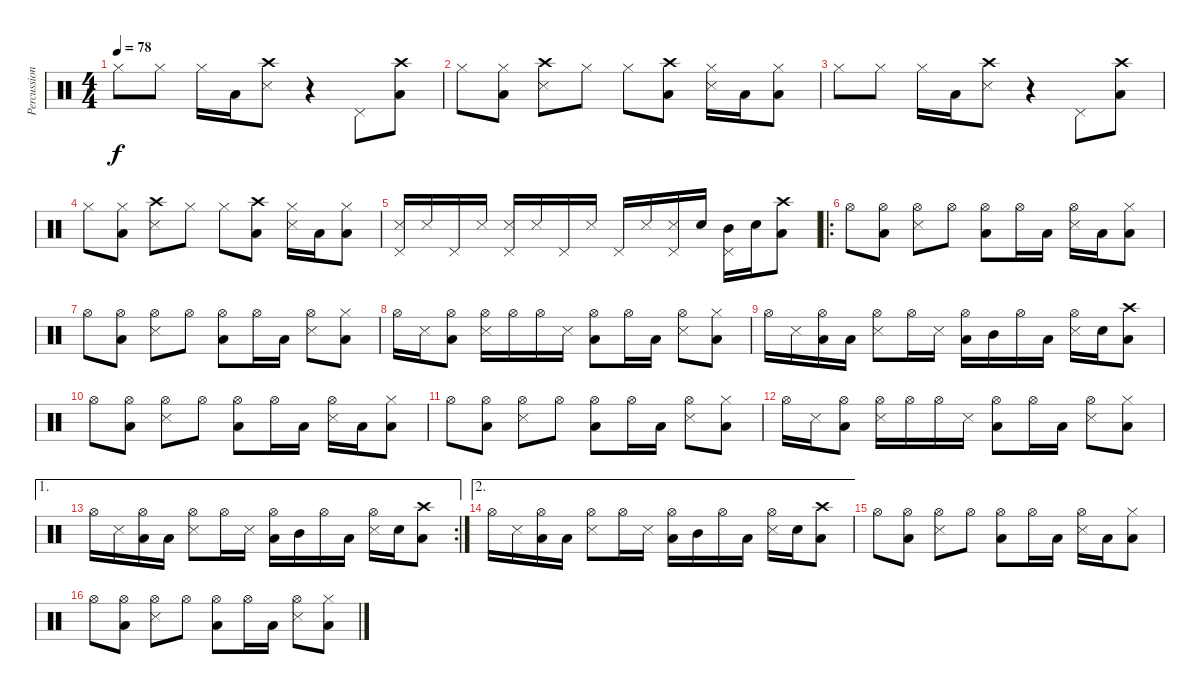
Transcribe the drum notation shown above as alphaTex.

\track ("Percussions" "Percussion") {instrument percussion}
\staff {score}
\articulation defaults
\ts (4 4)
\tempo 78
\clef neutral
\ks c "Hi-Hat (closed)".8{dy f} "Hi-Hat (closed)".8 "Hi-Hat (closed)".16 "Low Floor Tom (hit)".16
("Crash high (hit)" "Snare (side stick) 3").8 r.4 "Pedal Hi-Hat (hit)".8 ("Crash high (hit)" "Low Floor Tom (hit)").8 |
"Hi-Hat (closed)".8 ("Hi-Hat (closed)" "Low Floor Tom (hit)").8 ("Crash high (hit)" "Snare (side stick) 3").8 "Hi-Hat (closed)".8 "Hi-Hat (closed)".8 ("Crash high (hit)" "Low Floor Tom (hit)").8 ("Hi-Hat (closed)" "Snare (side stick) 3").16 "Low Floor Tom (hit)".16 ("Hi-Hat (closed)" "Low Floor Tom (hit)").8 |
"Hi-Hat (closed)".8 "Hi-Hat (closed)".8 "Hi-Hat (closed)".16 "Low Floor Tom (hit)".16 ("Crash high (hit)" "Snare (side stick) 3").8 r.4 "Pedal Hi-Hat (hit)".8 ("Crash high (hit)" "Low Floor Tom (hit)").8 |
"Hi-Hat (closed)".8 ("Hi-Hat (closed)" "Low Floor Tom (hit)").8 ("Crash high (hit)" "Snare (side stick) 3").8 "Hi-Hat (closed)".8 "Hi-Hat (closed)".8 ("Crash high (hit)" "Low Floor Tom (hit)").8 ("Hi-Hat (closed)" "Snare (side stick) 3").16 "Low Floor Tom (hit)".16 ("Hi-Hat (closed)" "Low Floor Tom (hit)").8 |
("Snare (side stick) 3" "Pedal Hi-Hat (hit)").16 "Snare (side stick) 3".16 "Pedal Hi-Hat (hit)".16 "Snare (side stick) 3".16 ("Snare (side stick) 3" "Pedal Hi-Hat (hit)").16 "Snare (side stick) 3".16 "Pedal Hi-Hat (hit)".16 "Snare (side stick) 3".16 "Pedal Hi-Hat (hit)".16 "Snare (side stick) 3".16 ("Snare (side stick) 3" "Pedal Hi-Hat (hit)").16 "Snare (hit) 2".16 ("Mid Tom (hit)" "Pedal Hi-Hat (hit)").16 "Snare (hit) 2".16 ("Crash high (hit)" "Low Floor Tom (hit)").8 |
\ro "Hi-Hat (open)".8
("Hi-Hat (open)" "Low Floor Tom (hit)").8 ("Hi-Hat (open)" "Snare (side stick) 3").8 "Hi-Hat (open)".8 ("Hi-Hat (open)" "Low Floor Tom (hit)").8 "Hi-Hat (open)".16 "Low Floor Tom (hit)".16 ("Hi-Hat (open)" "Snare (side stick) 3").16 "Low Floor Tom (hit)".16 ("Hi-Hat (closed)" "Low Floor Tom (hit)").8 |
"Hi-Hat (open)".8 ("Hi-Hat (open)" "Low Floor Tom (hit)").8 ("Hi-Hat (open)" "Snare (side stick) 3").8 "Hi-Hat (open)".8 ("Hi-Hat (open)" "Low Floor Tom (hit)").8 "Hi-Hat (open)".16 "Low Floor Tom (hit)".16 ("Hi-Hat (open)" "Snare (side stick) 3").8 ("Hi-Hat (closed)" "Low Floor Tom (hit)").8 |
"Hi-Hat (open)".16 "Snare (side stick) 3".16 ("Hi-Hat (open)" "Low Floor Tom (hit)").8 ("Hi-Hat (open)" "Snare (side stick) 3").16 "Hi-Hat (open)".16 "Hi-Hat (open)".16 "Snare (side stick) 3".16 ("Hi-Hat (open)" "Low Floor Tom (hit)").8 "Hi-Hat (open)".16 "Low Floor Tom (hit)".16 ("Hi-Hat (open)" "Snare (side stick) 3").8 ("Hi-Hat (closed)" "Low Floor Tom (hit)").8 |
"Hi-Hat (open)".16 "Snare (side stick) 3".16 ("Hi-Hat (open)" "Low Floor Tom (hit)").16 "Low Floor Tom (hit)".16 ("Hi-Hat (open)" "Snare (side stick) 3").8 "Hi-Hat (open)".16 "Snare (side stick) 3".16 ("Hi-Hat (open)" "Low Floor Tom (hit)").16 "Mid Tom (hit)".16 "Hi-Hat (open)".16 "Low Floor Tom (hit)".16 ("Hi-Hat (open)" "Snare (side stick) 3").16 "Snare (hit) 2".16 ("Crash high (hit)" "Low Floor Tom (hit)").8 |
"Hi-Hat (open)".8 ("Hi-Hat (open)" "Low Floor Tom (hit)").8 ("Hi-Hat (open)" "Snare (side stick) 3").8 "Hi-Hat (open)".8 ("Hi-Hat (open)" "Low Floor Tom (hit)").8 "Hi-Hat (open)".16 "Low Floor Tom (hit)".16 ("Hi-Hat (open)" "Snare (side stick) 3").16 "Low Floor Tom (hit)".16 ("Hi-Hat (closed)" "Low Floor Tom (hit)").8 |
"Hi-Hat (open)".8 ("Hi-Hat (open)" "Low Floor Tom (hit)").8 ("Hi-Hat (open)" "Snare (side stick) 3").8 "Hi-Hat (open)".8 ("Hi-Hat (open)" "Low Floor Tom (hit)").8 "Hi-Hat (open)".16 "Low Floor Tom (hit)".16 ("Hi-Hat (open)" "Snare (side stick) 3").8 ("Hi-Hat (closed)" "Low Floor Tom (hit)").8 |
"Hi-Hat (open)".16 "Snare (side stick) 3".16 ("Hi-Hat (open)" "Low Floor Tom (hit)").8 ("Hi-Hat (open)" "Snare (side stick) 3").16 "Hi-Hat (open)".16 "Hi-Hat (open)".16 "Snare (side stick) 3".16 ("Hi-Hat (open)" "Low Floor Tom (hit)").8 "Hi-Hat (open)".16 "Low Floor Tom (hit)".16 ("Hi-Hat (open)" "Snare (side stick) 3").8 ("Hi-Hat (closed)" "Low Floor Tom (hit)").8 |
\ae 1
\rc 2 "Hi-Hat (open)".16 "Snare (side stick) 3".16
("Hi-Hat (open)" "Low Floor Tom (hit)").16 "Low Floor Tom (hit)".16 ("Hi-Hat (open)" "Snare (side stick) 3").8 "Hi-Hat (open)".16 "Snare (side stick) 3".16 ("Hi-Hat (open)" "Low Floor Tom (hit)").16 "Mid Tom (hit)".16 "Hi-Hat (open)".16 "Low Floor Tom (hit)".16 ("Hi-Hat (open)" "Snare (side stick) 3").16 "Snare (hit) 2".16 ("Crash high (hit)" "Low Floor Tom (hit)").8 |
\ae 2 "Hi-Hat (open)".16 "Snare (side stick) 3".16
("Hi-Hat (open)" "Low Floor Tom (hit)").16 "Low Floor Tom (hit)".16 ("Hi-Hat (open)" "Snare (side stick) 3").8 "Hi-Hat (open)".16 "Snare (side stick) 3".16 ("Hi-Hat (open)" "Low Floor Tom (hit)").16 "Mid Tom (hit)".16 "Hi-Hat (open)".16 "Low Floor Tom (hit)".16 ("Hi-Hat (open)" "Snare (side stick) 3").16 "Snare (hit) 2".16 ("Crash high (hit)" "Low Floor Tom (hit)").8 |
"Hi-Hat (open)".8 ("Hi-Hat (open)" "Low Floor Tom (hit)").8 ("Hi-Hat (open)" "Snare (side stick) 3").8 "Hi-Hat (open)".8 ("Hi-Hat (open)" "Low Floor Tom (hit)").8 "Hi-Hat (open)".16 "Low Floor Tom (hit)".16 ("Hi-Hat (open)" "Snare (side stick) 3").16 "Low Floor Tom (hit)".16 ("Hi-Hat (closed)" "Low Floor Tom (hit)").8 |
"Hi-Hat (open)".8 ("Hi-Hat (open)" "Low Floor Tom (hit)").8 ("Hi-Hat (open)" "Snare (side stick) 3").8 "Hi-Hat (open)".8 ("Hi-Hat (open)" "Low Floor Tom (hit)").8 "Hi-Hat (open)".16 "Low Floor Tom (hit)".16 ("Hi-Hat (open)" "Snare (side stick) 3").8 ("Hi-Hat (closed)" "Low Floor Tom (hit)").8
